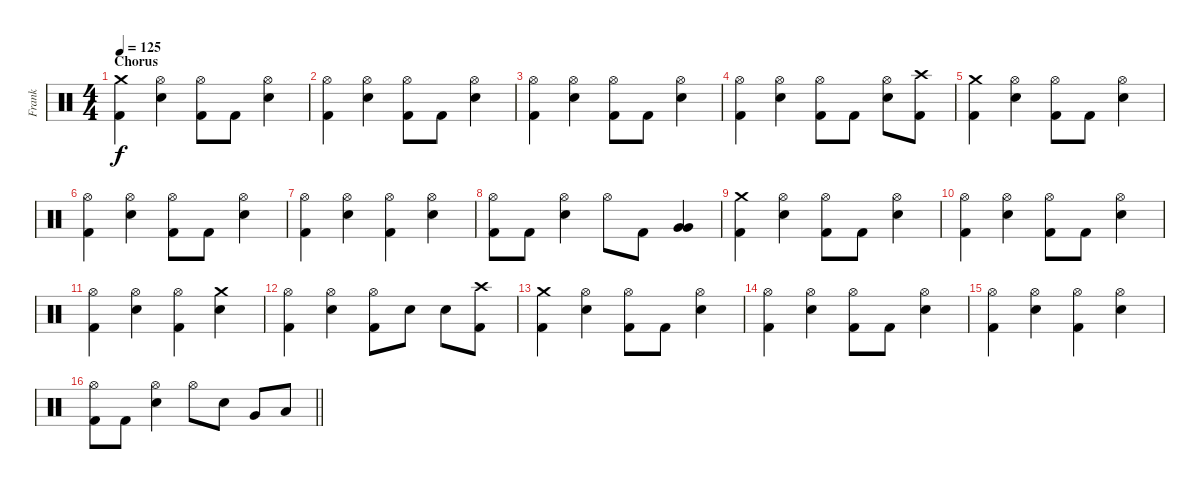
\track ("Frank" "Frank") {instrument percussion}
\staff {score}
\articulation defaults
\ts (4 4)
\section ("" "Chorus")
\tempo 125
\clef neutral
\ks c
("Crash medium (hit)" "Kick (hit) 2").4{dy f} ("Hi-Hat (open)" "Electric Snare (hit)").4 ("Hi-Hat (open)" "Kick (hit) 2").8 "Kick (hit) 2".8 ("Hi-Hat (open)" "Electric Snare (hit)").4 |
("Hi-Hat (open)" "Kick (hit) 2").4 ("Hi-Hat (open)" "Electric Snare (hit)").4 ("Hi-Hat (open)" "Kick (hit) 2").8 "Kick (hit) 2".8 ("Hi-Hat (open)" "Electric Snare (hit)").4 |
("Hi-Hat (open)" "Kick (hit) 2").4 ("Hi-Hat (open)" "Electric Snare (hit)").4 ("Hi-Hat (open)" "Kick (hit) 2").8 "Kick (hit) 2".8 ("Hi-Hat (open)" "Electric Snare (hit)").4 |
("Hi-Hat (open)" "Kick (hit) 2").4 ("Hi-Hat (open)" "Electric Snare (hit)").4 ("Hi-Hat (open)" "Kick (hit) 2").8 "Kick (hit) 2".8 ("Hi-Hat (open)" "Electric Snare (hit)").8 ("Crash high (hit)" "Kick (hit) 2").8 |
("Crash medium (hit)" "Kick (hit) 2").4 ("Hi-Hat (open)" "Electric Snare (hit)").4 ("Hi-Hat (open)" "Kick (hit) 2").8 "Kick (hit) 2".8 ("Hi-Hat (open)" "Electric Snare (hit)").4 |
("Hi-Hat (open)" "Kick (hit) 2").4 ("Hi-Hat (open)" "Electric Snare (hit)").4 ("Hi-Hat (open)" "Kick (hit) 2").8 "Kick (hit) 2".8 ("Hi-Hat (open)" "Electric Snare (hit)").4 |
("Hi-Hat (open)" "Kick (hit) 2").4 ("Hi-Hat (open)" "Electric Snare (hit)").4 ("Hi-Hat (open)" "Kick (hit) 2").4 ("Hi-Hat (open)" "Electric Snare (hit)").4 |
("Hi-Hat (open)" "Kick (hit) 2").8 "Kick (hit) 2".8 ("Hi-Hat (open)" "Electric Snare (hit)").4 "Hi-Hat (open)".8 "Kick (hit) 2".8 ("Very Low Tom (hit)" "Very Low Tom (hit)").4 |
("Crash medium (hit)" "Kick (hit) 2").4 ("Hi-Hat (open)" "Electric Snare (hit)").4 ("Hi-Hat (open)" "Kick (hit) 2").8 "Kick (hit) 2".8 ("Hi-Hat (open)" "Electric Snare (hit)").4 |
("Hi-Hat (open)" "Kick (hit) 2").4 ("Hi-Hat (open)" "Electric Snare (hit)").4 ("Hi-Hat (open)" "Kick (hit) 2").8 "Kick (hit) 2".8 ("Hi-Hat (open)" "Electric Snare (hit)").4 |
("Hi-Hat (open)" "Kick (hit) 2").4 ("Hi-Hat (open)" "Electric Snare (hit)").4 ("Hi-Hat (open)" "Kick (hit) 2").4 ("Crash medium (hit)" "Electric Snare (hit)").4 |
("Hi-Hat (open)" "Kick (hit) 2").4 ("Hi-Hat (open)" "Electric Snare (hit)").4 ("Hi-Hat (open)" "Kick (hit) 2").8 "Electric Snare (hit)".8 "Electric Snare (hit)".8 ("Crash high (hit)" "Kick (hit) 2").8 |
("Crash medium (hit)" "Kick (hit) 2").4 ("Hi-Hat (open)" "Electric Snare (hit)").4 ("Hi-Hat (open)" "Kick (hit) 2").8 "Kick (hit) 2".8 ("Hi-Hat (open)" "Electric Snare (hit)").4 |
("Hi-Hat (open)" "Kick (hit) 2").4 ("Hi-Hat (open)" "Electric Snare (hit)").4 ("Hi-Hat (open)" "Kick (hit) 2").8 "Kick (hit) 2".8 ("Hi-Hat (open)" "Electric Snare (hit)").4 |
("Hi-Hat (open)" "Kick (hit) 2").4 ("Hi-Hat (open)" "Electric Snare (hit)").4 ("Hi-Hat (open)" "Kick (hit) 2").4 ("Hi-Hat (open)" "Electric Snare (hit)").4 |
\barLineRight lightlight
("Hi-Hat (open)" "Kick (hit) 2").8 "Kick (hit) 2".8 ("Hi-Hat (open)" "Electric Snare (hit)").4 "Hi-Hat (open)".8 "Electric Snare (hit)".8 "Very Low Tom (hit)".8 "Low Floor Tom (hit)".8
